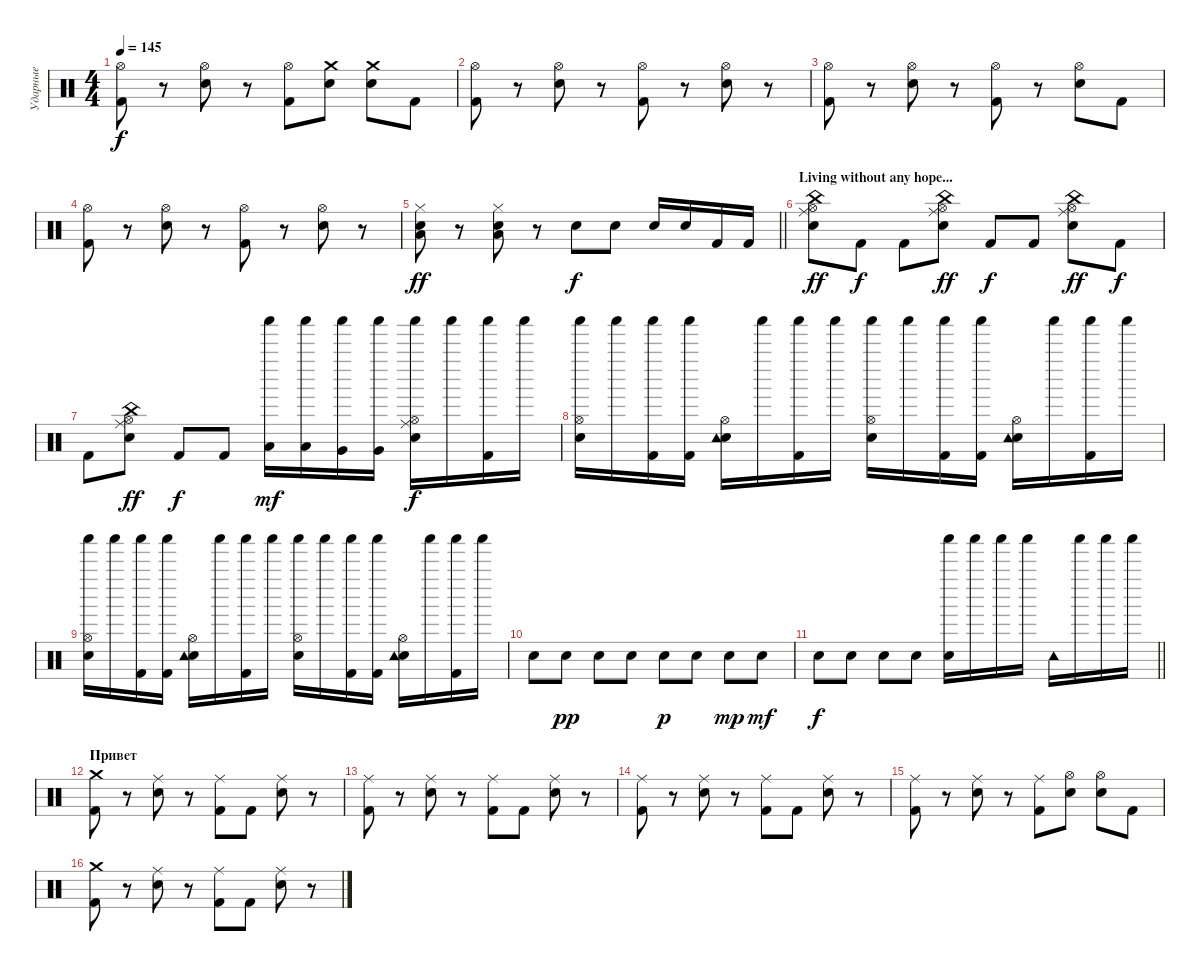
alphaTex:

\track ("Ударные" "Ударные") {instrument percussion bank 127}
\staff
\articulation defaults
\ts (4 4)
\tempo 145
\clef neutral
\ks c
("Kick (hit) 2" "Hi-Hat (open)").8{dy f} r.8 ("Snare (hit) 2" "Hi-Hat (open)").8 r.8 ("Kick (hit) 2" "Hi-Hat (open)").8 ("Snare (hit) 2" "Crash medium (hit)").8 ("Snare (hit) 2" "Crash medium (hit)").8 "Kick (hit) 2".8 |
("Kick (hit) 2" "Hi-Hat (open)").8 r.8 ("Snare (hit) 2" "Hi-Hat (open)").8 r.8 ("Kick (hit) 2" "Hi-Hat (open)").8 r.8 ("Snare (hit) 2" "Hi-Hat (open)").8 r.8 |
("Kick (hit) 2" "Hi-Hat (open)").8 r.8 ("Snare (hit) 2" "Hi-Hat (open)").8 r.8 ("Kick (hit) 2" "Hi-Hat (open)").8 r.8 ("Snare (hit) 2" "Hi-Hat (open)").8 "Kick (hit) 2".8 |
("Kick (hit) 2" "Hi-Hat (open)").8 r.8 ("Snare (hit) 2" "Hi-Hat (open)").8 r.8 ("Kick (hit) 2" "Hi-Hat (open)").8 r.8 ("Snare (hit) 2" "Hi-Hat (open)").8 r.8 |
\barLineRight lightlight
("Hi-Hat (closed)" "Low Tom (hit)" "Snare (hit) 2").8{dy ff} r.8 ("Hi-Hat (closed)" "Low Tom (hit)" "Snare (hit) 2").8 r.8 "Snare (hit) 2".8{dy f} "Snare (hit) 2".8 "Snare (hit) 2".16 "Snare (hit) 2".16 "Kick (hit) 2".16 "Kick (hit) 2".16 |
\section ("" "Living without any hope...")
("Hi-Hat (open)" "Ride (middle)" "China (hit)" "Snare (hit) 2").8{dy ff} "Kick (hit) 2".8{dy f} "Kick (hit) 2".8 ("Hi-Hat (open)" "Ride (middle)" "China (hit)" "Snare (hit) 2").8{dy ff} "Kick (hit) 2".8{dy f} "Kick (hit) 2".8 ("Hi-Hat (open)" "Ride (middle)" "China (hit)" "Snare (hit) 2").8{dy ff} "Kick (hit) 2".8{dy f} |
"Kick (hit) 2".8 ("Ride (middle)" "Hi-Hat (open)" "China (hit)" "Snare (hit) 2").8{dy ff} "Kick (hit) 2".8{dy f} "Kick (hit) 2".8 ("Low Tom (hit)" "Shaker (hit)").16{dy mf} ("Low Tom (hit)" "Shaker (hit)").16 ("Very Low Tom (hit)" "Shaker (hit)").16 ("Very Low Tom (hit)" "Shaker (hit)").16 ("Hi-Hat (open)" "Snare (hit) 2" "Ride (middle)" "Shaker (hit)").16{dy f} "Shaker (hit)".16 ("Kick (hit) 2" "Shaker (hit)").16 "Shaker (hit)".16 |
("Hi-Hat (open)" "Snare (hit) 2" "Shaker (hit)").16 "Shaker (hit)".16 ("Kick (hit) 2" "Shaker (hit)").16 ("Kick (hit) 2" "Shaker (hit)").16 ("Hi-Hat (open)" "Snare (hit) 2" "Tambourine (hit)").16 "Shaker (hit)".16 ("Kick (hit) 2" "Shaker (hit)").16 "Shaker (hit)".16 ("Hi-Hat (open)" "Snare (hit) 2" "Shaker (hit)").16 "Shaker (hit)".16 ("Kick (hit) 2" "Shaker (hit)").16 ("Kick (hit) 2" "Shaker (hit)").16 ("Hi-Hat (open)" "Snare (hit) 2" "Tambourine (hit)").16 "Shaker (hit)".16 ("Kick (hit) 2" "Shaker (hit)").16 "Shaker (hit)".16 |
("Hi-Hat (open)" "Snare (hit) 2" "Shaker (hit)").16 "Shaker (hit)".16 ("Kick (hit) 2" "Shaker (hit)").16 ("Kick (hit) 2" "Shaker (hit)").16 ("Hi-Hat (open)" "Snare (hit) 2" "Tambourine (hit)").16 "Shaker (hit)".16 ("Kick (hit) 2" "Shaker (hit)").16 "Shaker (hit)".16 ("Hi-Hat (open)" "Snare (hit) 2" "Shaker (hit)").16 "Shaker (hit)".16 ("Kick (hit) 2" "Shaker (hit)").16 ("Kick (hit) 2" "Shaker (hit)").16 ("Hi-Hat (open)" "Snare (hit) 2" "Tambourine (hit)").16 "Shaker (hit)".16 ("Kick (hit) 2" "Shaker (hit)").16 "Shaker (hit)".16 |
"Snare (hit) 2".8 "Snare (hit) 2".8{dy pp} "Snare (hit) 2".8 "Snare (hit) 2".8 "Snare (hit) 2".8{dy p} "Snare (hit) 2".8 "Snare (hit) 2".8{dy mp} "Snare (hit) 2".8{dy mf} |
\barLineRight lightlight "Snare (hit) 2".8{dy f} "Snare (hit) 2".8 "Snare (hit) 2".8 "Snare (hit) 2".8
("Snare (hit) 2" "Shaker (hit)").16 "Shaker (hit)".16 "Shaker (hit)".16 "Shaker (hit)".16 "Tambourine (hit)".16 "Shaker (hit)".16 "Shaker (hit)".16 "Shaker (hit)".16 |
\section ("" "Привет")
("Crash medium (hit)" "Kick (hit) 2").8 r.8 ("Ride (middle)" "Snare (hit) 2").8 r.8 ("Ride (middle)" "Kick (hit) 2").8 "Kick (hit) 2".8 ("Ride (middle)" "Snare (hit) 2").8 r.8 |
("Ride (middle)" "Kick (hit) 2").8 r.8 ("Ride (middle)" "Snare (hit) 2").8 r.8 ("Ride (middle)" "Kick (hit) 2").8 "Kick (hit) 2".8 ("Ride (middle)" "Snare (hit) 2").8 r.8 |
("Ride (middle)" "Kick (hit) 2").8 r.8 ("Ride (middle)" "Snare (hit) 2").8 r.8 ("Ride (middle)" "Kick (hit) 2").8 "Kick (hit) 2".8 ("Ride (middle)" "Snare (hit) 2").8 r.8 |
("Ride (middle)" "Kick (hit) 2").8 r.8 ("Ride (middle)" "Snare (hit) 2").8 r.8 ("Ride (middle)" "Kick (hit) 2").8 ("Hi-Hat (open)" "Snare (hit) 2").8 ("Hi-Hat (open)" "Snare (hit) 2").8 "Kick (hit) 2".8 |
("Crash medium (hit)" "Kick (hit) 2").8 r.8 ("Ride (middle)" "Snare (hit) 2").8 r.8 ("Ride (middle)" "Kick (hit) 2").8 "Kick (hit) 2".8 ("Ride (middle)" "Snare (hit) 2").8 r.8
